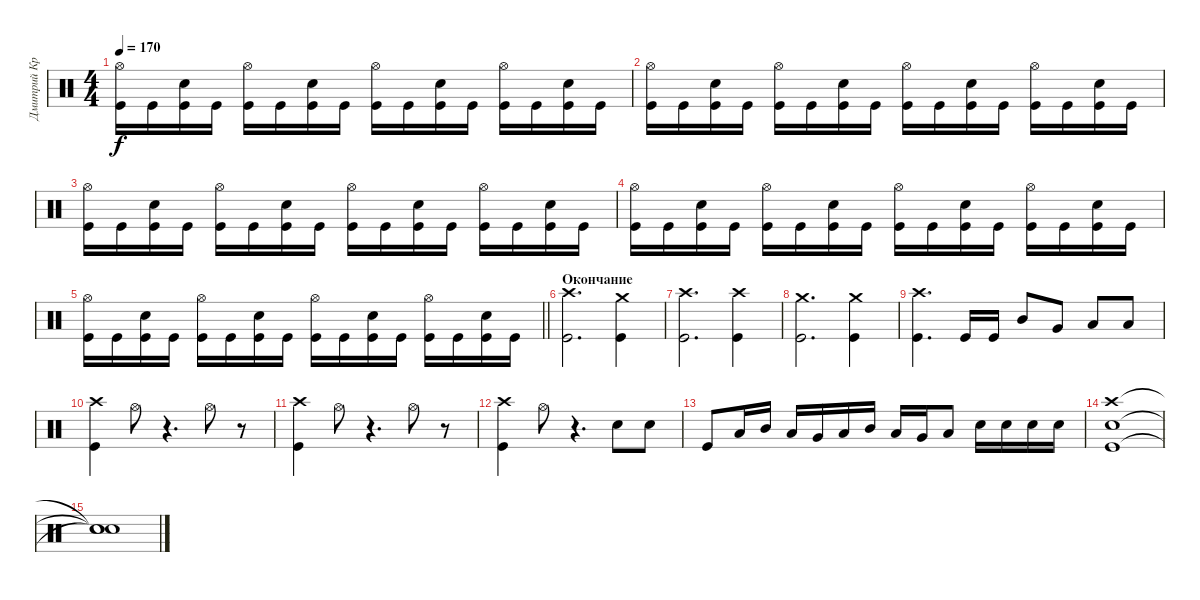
\track ("Дмитрий Кривенков" "Дмитрий Кр") {instrument percussion}
\staff {score}
\articulation defaults
\ts (4 4)
\tempo 170
\clef neutral
\ks c
("Hi-Hat (open)" "Kick (hit)").16{dy f} "Kick (hit)".16 ("Snare (hit) 2" "Kick (hit)").16 "Kick (hit)".16 ("Hi-Hat (open)" "Kick (hit)").16 "Kick (hit)".16 ("Snare (hit) 2" "Kick (hit)").16 "Kick (hit)".16 ("Hi-Hat (open)" "Kick (hit)").16 "Kick (hit)".16 ("Snare (hit) 2" "Kick (hit)").16 "Kick (hit)".16 ("Hi-Hat (open)" "Kick (hit)").16 "Kick (hit)".16 ("Snare (hit) 2" "Kick (hit)").16 "Kick (hit)".16 |
("Hi-Hat (open)" "Kick (hit)").16 "Kick (hit)".16 ("Snare (hit) 2" "Kick (hit)").16 "Kick (hit)".16 ("Hi-Hat (open)" "Kick (hit)").16 "Kick (hit)".16 ("Snare (hit) 2" "Kick (hit)").16 "Kick (hit)".16 ("Hi-Hat (open)" "Kick (hit)").16 "Kick (hit)".16 ("Snare (hit) 2" "Kick (hit)").16 "Kick (hit)".16 ("Hi-Hat (open)" "Kick (hit)").16 "Kick (hit)".16 ("Snare (hit) 2" "Kick (hit)").16 "Kick (hit)".16 |
("Hi-Hat (open)" "Kick (hit)").16 "Kick (hit)".16 ("Snare (hit) 2" "Kick (hit)").16 "Kick (hit)".16 ("Hi-Hat (open)" "Kick (hit)").16 "Kick (hit)".16 ("Snare (hit) 2" "Kick (hit)").16 "Kick (hit)".16 ("Hi-Hat (open)" "Kick (hit)").16 "Kick (hit)".16 ("Snare (hit) 2" "Kick (hit)").16 "Kick (hit)".16 ("Hi-Hat (open)" "Kick (hit)").16 "Kick (hit)".16 ("Snare (hit) 2" "Kick (hit)").16 "Kick (hit)".16 |
("Hi-Hat (open)" "Kick (hit)").16 "Kick (hit)".16 ("Snare (hit) 2" "Kick (hit)").16 "Kick (hit)".16 ("Hi-Hat (open)" "Kick (hit)").16 "Kick (hit)".16 ("Snare (hit) 2" "Kick (hit)").16 "Kick (hit)".16 ("Hi-Hat (open)" "Kick (hit)").16 "Kick (hit)".16 ("Snare (hit) 2" "Kick (hit)").16 "Kick (hit)".16 ("Hi-Hat (open)" "Kick (hit)").16 "Kick (hit)".16 ("Snare (hit) 2" "Kick (hit)").16 "Kick (hit)".16 |
\barLineRight lightlight
("Hi-Hat (open)" "Kick (hit)").16 "Kick (hit)".16 ("Snare (hit) 2" "Kick (hit)").16 "Kick (hit)".16 ("Hi-Hat (open)" "Kick (hit)").16 "Kick (hit)".16 ("Snare (hit) 2" "Kick (hit)").16 "Kick (hit)".16 ("Hi-Hat (open)" "Kick (hit)").16 "Kick (hit)".16 ("Snare (hit) 2" "Kick (hit)").16 "Kick (hit)".16 ("Hi-Hat (open)" "Kick (hit)").16 "Kick (hit)".16 ("Snare (hit) 2" "Kick (hit)").16 "Kick (hit)".16 |
\section ("" "Окончание")
("Crash high (hit)" "Kick (hit)").2{d} ("Crash medium (hit)" "Kick (hit)").4 |
("Crash high (hit)" "Kick (hit)").2{d} ("Crash high (hit)" "Kick (hit)").4 |
("Crash medium (hit)" "Kick (hit)").2{d} ("Crash medium (hit)" "Kick (hit)").4 |
("Crash high (hit)" "Kick (hit)").4{d} "Kick (hit)".16 "Kick (hit)".16 "Mid Tom (hit)".8 "Very Low Tom (hit)".8 "Low Tom (hit)".8 "Low Floor Tom (hit)".8 |
("Crash high (hit)" "Kick (hit)").4 "Hi-Hat (open)".8 r.4{d} "Hi-Hat (open)".8 r.8 |
("Crash high (hit)" "Kick (hit)").4 "Hi-Hat (open)".8 r.4{d} "Hi-Hat (open)".8 r.8 |
("Crash high (hit)" "Kick (hit)").4 "Hi-Hat (open)".8 r.4{d} "Snare (hit) 2".8 "Snare (hit) 2".8 |
"Kick (hit)".8 "Low Tom (hit)".16 "Mid Tom (hit)".16 "Low Tom (hit)".16 "Very Low Tom (hit)".16 "Low Floor Tom (hit)".16 "Mid Tom (hit)".16 "Low Tom (hit)".16 "Very Low Tom (hit)".16 "Low Tom (hit)".8 "Snare (hit) 2".16 "Snare (hit) 2".16 "Snare (hit) 2".16 "Snare (hit) 2".16 |
("Crash high (hit)" "Snare (hit) 2" "Kick (hit)").1 |
("Snare (hit)"{t} "Snare (hit)"{t} "Snare (hit)"{t}).1
